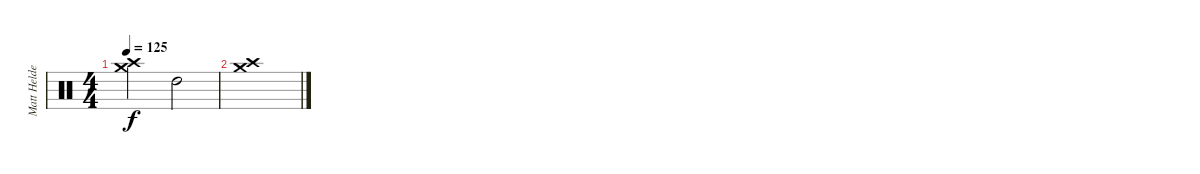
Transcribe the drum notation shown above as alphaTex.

\track ("Matt Helders" "Matt Helde") {instrument percussion}
\staff {score}
\articulation defaults
\ts (4 4)
\tempo 125
\clef neutral
\ks c
("Crash high (hit)" "Crash medium (hit)").2{dy f} "High Tom (hit)".2 |
("Crash high (hit)" "Crash medium (hit)").1
